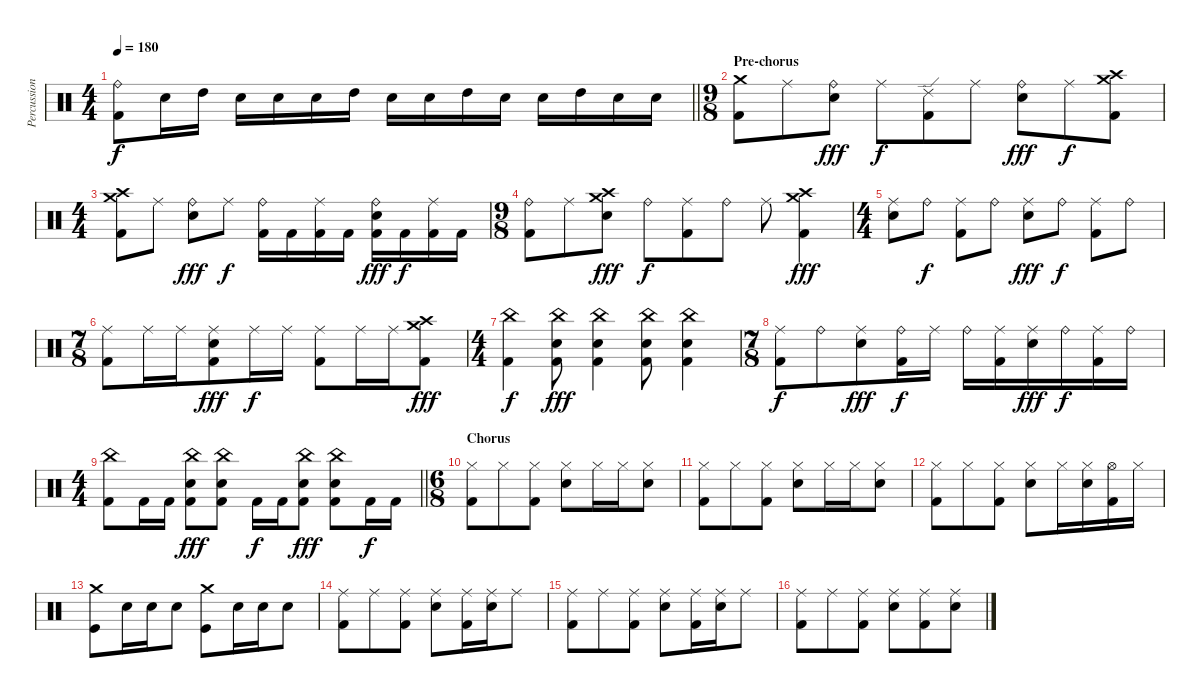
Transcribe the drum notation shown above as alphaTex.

\track ("Percussion" "Percussion") {instrument percussion}
\staff {score}
\articulation defaults
\ts (4 4)
\tempo 180
\clef neutral
\barLineRight lightlight
\ks c
("Ride (bell)" "Kick (hit) 2").8{dy f} "Electric Snare (hit)".16 "High Tom (hit)".16 "Electric Snare (hit)".16 "Electric Snare (hit)".16 "Electric Snare (hit)".16 "High Tom (hit)".16 "Electric Snare (hit)".16 "Electric Snare (hit)".16 "High Tom (hit)".16 "Electric Snare (hit)".16 "Electric Snare (hit)".16 "High Tom (hit)".16 "Electric Snare (hit)".16 "Electric Snare (hit)".16 |
\ts (9 8)
\section ("" "Pre-chorus")
("Crash medium (hit)" "Kick (hit) 2").8 "Ride (middle)".8 ("Ride (bell)" "Electric Snare (hit)").8{dy fff} "Ride (middle)".8{dy f} ("Ride (edge) 2" "Kick (hit) 2").8 "Ride (middle)".8 ("Ride (bell)" "Electric Snare (hit)").8{dy fff} "Ride (middle)".8{dy f} ("Crash medium (hit)" "Crash high (hit)" "Kick (hit) 2").8 |
\ts (4 4)
("Crash medium (hit)" "Crash high (hit)" "Kick (hit) 2").8 "Ride (middle)".8 ("Ride (bell)" "Electric Snare (hit)").8{dy fff} "Ride (middle)".8{dy f} ("Ride (bell)" "Kick (hit) 2").16 "Kick (hit) 2".16 ("Ride (middle)" "Kick (hit) 2").16 "Kick (hit) 2".16 ("Ride (bell)" "Electric Snare (hit)" "Kick (hit) 2").16{dy fff} "Kick (hit) 2".16{dy f} ("Ride (middle)" "Kick (hit) 2").16 "Kick (hit) 2".16 |
\ts (9 8)
("Ride (bell)" "Kick (hit) 2").8 "Ride (middle)".8 ("Crash high (hit)" "Crash medium (hit)" "Electric Snare (hit)").8{dy fff} "Ride (bell)".8{dy f} ("Ride (middle)" "Kick (hit) 2").8 "Ride (bell)".8 "Ride (middle)".8 ("Crash medium (hit)" "Crash high (hit)" "Kick (hit) 2").4{dy fff} |
\ts (4 4)
("Ride (middle)" "Electric Snare (hit)").8 "Ride (bell)".8{dy f} ("Ride (middle)" "Kick (hit) 2").8 "Ride (bell)".8 ("Ride (middle)" "Electric Snare (hit)").8{dy fff} "Ride (bell)".8{dy f} ("Ride (middle)" "Kick (hit) 2").8 "Ride (bell)".8 |
\ts (7 8)
("Ride (middle)" "Kick (hit) 2").8 "Ride (middle)".16 "Ride (middle)".16 ("Ride (middle)" "Electric Snare (hit)" "Kick (hit) 2").8{dy fff} "Ride (middle)".16{dy f} "Ride (middle)".16 ("Ride (middle)" "Kick (hit) 2").8 "Ride (middle)".16 "Ride (middle)".16 ("Crash high (hit)" "Crash medium (hit)" "Kick (hit) 2").8{dy fff} |
\ts (4 4)
("China (hit)" "Kick (hit) 2").4{dy f} ("China (hit)" "Electric Snare (hit)" "Kick (hit) 2").8{dy fff} ("China (hit)" "Electric Snare (hit)" "Kick (hit) 2").4 ("China (hit)" "Electric Snare (hit)" "Kick (hit) 2").8 ("China (hit)" "Electric Snare (hit)" "Kick (hit) 2").4 |
\ts (7 8)
("Ride (middle)" "Kick (hit) 2").8{dy f} "Ride (bell)".8 ("Ride (middle)" "Electric Snare (hit)").8{dy fff} ("Ride (bell)" "Kick (hit) 2").16{dy f} "Ride (middle)".16 "Ride (bell)".16 ("Ride (middle)" "Kick (hit) 2").16 ("Ride (middle)" "Electric Snare (hit)").16{dy fff} "Ride (bell)".16{dy f} ("Ride (middle)" "Kick (hit) 2").16 "Ride (bell)".16 |
\ts (4 4)
\barLineRight lightlight
("China (hit)" "Kick (hit) 2").8 "Kick (hit) 2".16 "Kick (hit) 2".16 ("China (hit)" "Electric Snare (hit)" "Kick (hit) 2").8{dy fff} ("China (hit)" "Electric Snare (hit)" "Kick (hit) 2").8 "Kick (hit) 2".16{dy f} "Kick (hit) 2".16 ("China (hit)" "Electric Snare (hit)" "Kick (hit) 2").8{dy fff} ("China (hit)" "Electric Snare (hit)" "Kick (hit) 2").8 "Kick (hit) 2".16{dy f} "Kick (hit) 2".16 |
\ts (6 8)
\section ("" "Chorus")
("Hi-Hat (closed)" "Kick (hit) 2").8 "Hi-Hat (closed)".8 ("Hi-Hat (closed)" "Kick (hit) 2").8 ("Hi-Hat (closed)" "Electric Snare (hit)").8 "Hi-Hat (closed)".16 "Hi-Hat (closed)".16 ("Hi-Hat (closed)" "Electric Snare (hit)").8 |
("Hi-Hat (closed)" "Kick (hit) 2").8 "Hi-Hat (closed)".8 ("Hi-Hat (closed)" "Kick (hit) 2").8 ("Hi-Hat (closed)" "Electric Snare (hit)").8 "Hi-Hat (closed)".16 "Hi-Hat (closed)".16 ("Hi-Hat (closed)" "Electric Snare (hit)").8 |
("Hi-Hat (closed)" "Kick (hit) 2").8 "Hi-Hat (closed)".8 ("Hi-Hat (closed)" "Kick (hit) 2").8 ("Hi-Hat (closed)" "Electric Snare (hit)").8 "Hi-Hat (closed)".16 ("Hi-Hat (closed)" "Electric Snare (hit)").16 ("Hi-Hat (open)" "Kick (hit) 2").16 "Hi-Hat (closed)".16 |
("Crash medium (hit)" "Kick (hit)").8 "Electric Snare (hit)".16 "Electric Snare (hit)".16 "Electric Snare (hit)".8 ("Crash medium (hit)" "Kick (hit)").8 "Electric Snare (hit)".16 "Electric Snare (hit)".16 "Electric Snare (hit)".8 |
("Ride (middle)" "Kick (hit) 2").8 "Ride (middle)".8 ("Ride (middle)" "Kick (hit) 2").8 ("Ride (middle)" "Electric Snare (hit)").8 ("Ride (middle)" "Kick (hit) 2").16 ("Ride (middle)" "Electric Snare (hit)").16 "Ride (middle)".8 |
("Ride (middle)" "Kick (hit) 2").8 "Ride (middle)".8 ("Ride (middle)" "Kick (hit) 2").8 ("Ride (middle)" "Electric Snare (hit)").8 ("Ride (middle)" "Kick (hit) 2").16 ("Ride (middle)" "Electric Snare (hit)").16 "Ride (middle)".8 |
("Ride (middle)" "Kick (hit) 2").8 "Ride (middle)".8 ("Ride (middle)" "Kick (hit) 2").8 ("Ride (middle)" "Electric Snare (hit)").8 ("Ride (middle)" "Kick (hit) 2").8 ("Ride (middle)" "Electric Snare (hit)").8
